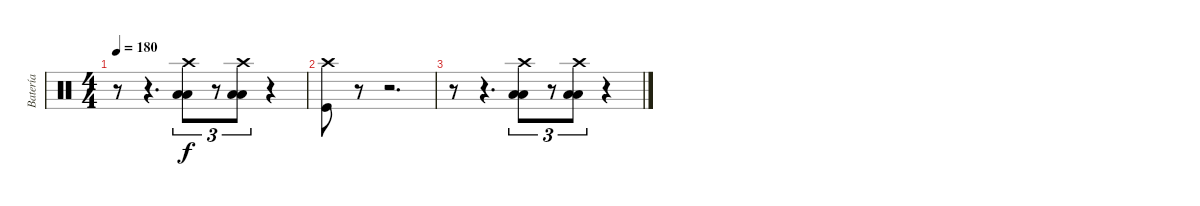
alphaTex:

\track ("Batería" "Batería") {instrument percussion}
\staff {score}
\articulation defaults
\ts (4 4)
\tempo 180
\clef neutral
\ks c
r.8{dy f} r.4{d} ("Crash high (hit)" "Low Tom (hit)" "Low Tom (hit)").8{tu (3 2)} r.8{tu (3 2)} ("Crash high (hit)" "Low Tom (hit)" "Low Tom (hit)").8{tu (3 2)} r.4 |
("Crash high (hit)" "Kick (hit)").8 r.8 r.2{d} |
r.8 r.4{d} ("Crash high (hit)" "Low Tom (hit)" "Low Tom (hit)").8{tu (3 2)} r.8{tu (3 2)} ("Crash high (hit)" "Low Tom (hit)" "Low Tom (hit)").8{tu (3 2)} r.4
